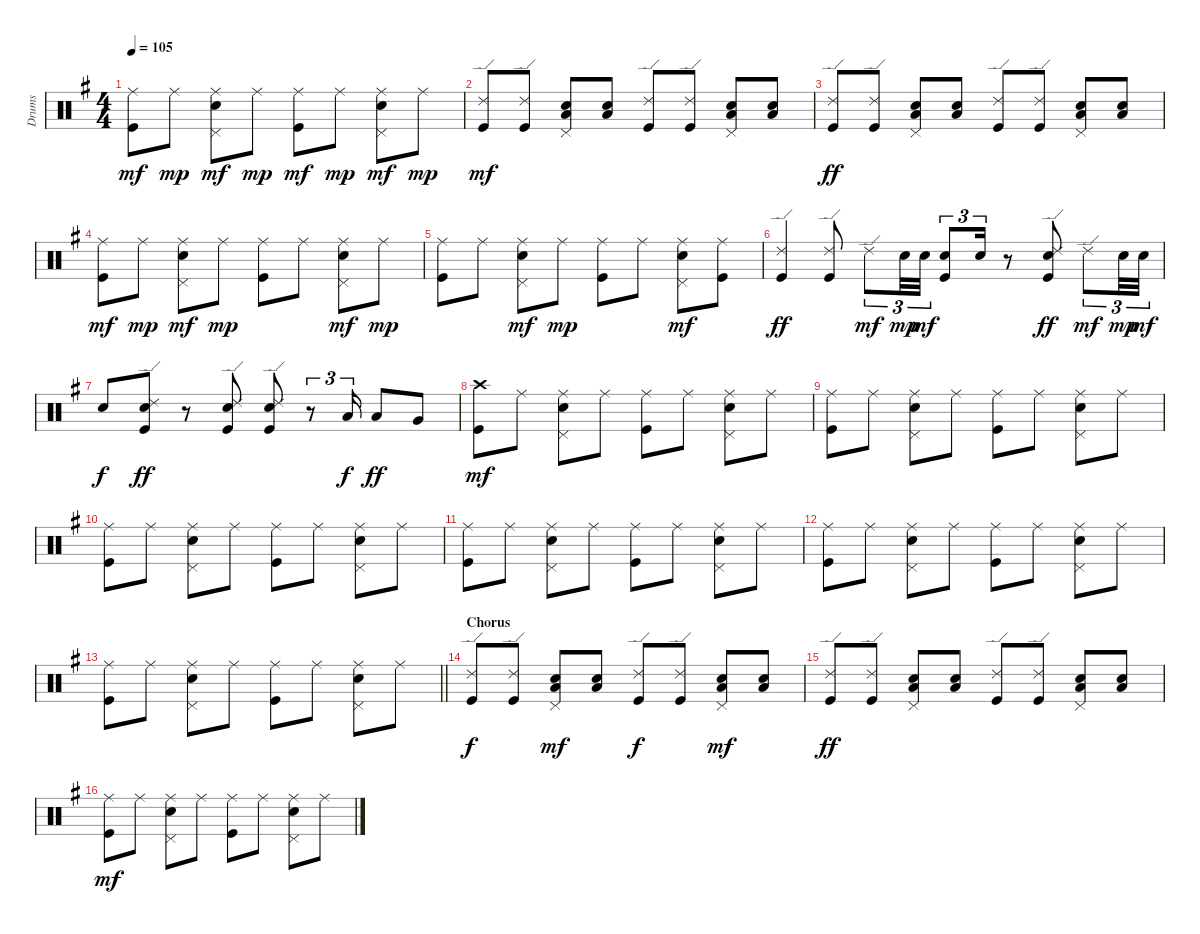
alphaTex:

\track ("Drums" "Drums") {instrument percussion}
\staff {score}
\articulation defaults
\ts (4 4)
\tempo 105
\clef neutral
\ks eminor
("Ride (middle)" "Kick (hit)").8{dy mf} "Ride (middle)".8{dy mp} ("Ride (middle)" "Pedal Hi-Hat (hit)" "Snare (hit) 2").8{dy mf} "Ride (middle)".8{dy mp} ("Ride (middle)" "Kick (hit)").8{dy mf} "Ride (middle)".8{dy mp} ("Ride (middle)" "Pedal Hi-Hat (hit)" "Snare (hit) 2").8{dy mf} "Ride (middle)".8{dy mp} |
("Ride (edge) 2" "Kick (hit)").8{dy mf} ("Ride (edge) 2" "Kick (hit)").8 ("Pedal Hi-Hat (hit)" "Snare (hit) 2" "Low Tom (hit)").8 ("Snare (hit) 2" "Low Tom (hit)").8 ("Ride (edge) 2" "Kick (hit)").8 ("Ride (edge) 2" "Kick (hit)").8 ("Pedal Hi-Hat (hit)" "Snare (hit) 2" "Low Tom (hit)").8 ("Snare (hit) 2" "Low Tom (hit)").8 |
("Ride (edge) 2" "Kick (hit)").8{dy ff} ("Ride (edge) 2" "Kick (hit)").8 ("Pedal Hi-Hat (hit)" "Snare (hit) 2" "Low Tom (hit)").8 ("Snare (hit) 2" "Low Tom (hit)").8 ("Ride (edge) 2" "Kick (hit)").8 ("Ride (edge) 2" "Kick (hit)").8 ("Pedal Hi-Hat (hit)" "Snare (hit) 2" "Low Tom (hit)").8 ("Snare (hit) 2" "Low Tom (hit)").8 |
("Ride (middle)" "Kick (hit)").8{dy mf} "Ride (middle)".8{dy mp} ("Ride (middle)" "Pedal Hi-Hat (hit)" "Snare (hit) 2").8{dy mf} "Ride (middle)".8{dy mp} ("Ride (middle)" "Kick (hit)").8 "Ride (middle)".8 ("Ride (middle)" "Pedal Hi-Hat (hit)" "Snare (hit) 2").8{dy mf} "Ride (middle)".8{dy mp} |
("Ride (middle)" "Kick (hit)").8 "Ride (middle)".8 ("Ride (middle)" "Pedal Hi-Hat (hit)" "Snare (hit) 2").8{dy mf} "Ride (middle)".8{dy mp} ("Ride (middle)" "Kick (hit)").8 "Ride (middle)".8 ("Ride (middle)" "Pedal Hi-Hat (hit)" "Snare (hit) 2").8{dy mf} ("Ride (middle)" "Kick (hit)").8 |
("Ride (edge) 2" "Kick (hit)").4{dy ff} ("Ride (edge) 2" "Kick (hit)").8 "Ride (edge) 2".8{tu (3 2) dy mf} "Snare (hit) 2".32{tu (3 2) dy mp} "Snare (hit) 2".32{tu (3 2) dy mf} ("Snare (hit) 2" "Kick (hit)").8{tu (3 2)} "Snare (hit) 2".16{tu (3 2)} r.8 ("Ride (edge) 2" "Snare (hit) 2" "Kick (hit)").8{dy ff} "Ride (edge) 2".8{tu (3 2) dy mf} "Snare (hit) 2".32{tu (3 2) dy mp} "Snare (hit) 2".32{tu (3 2) dy mf} |
"Snare (hit) 2".8{dy f} ("Ride (edge) 2" "Snare (hit) 2" "Kick (hit)").8{dy ff} r.8 ("Ride (edge) 2" "Snare (hit) 2" "Kick (hit)").8 ("Ride (edge) 2" "Snare (hit) 2" "Kick (hit)").8 r.8{tu (3 2)} "Low Tom (hit)".16{tu (3 2) dy f} "Low Tom (hit)".8{dy ff} "Very Low Tom (hit)".8 |
("Crash high (hit)" "Kick (hit)").8{dy mf} "Ride (middle)".8 ("Ride (middle)" "Pedal Hi-Hat (hit)" "Snare (hit) 2").8 "Ride (middle)".8 ("Ride (middle)" "Kick (hit)").8 "Ride (middle)".8 ("Ride (middle)" "Pedal Hi-Hat (hit)" "Snare (hit) 2").8 "Ride (middle)".8 |
("Ride (middle)" "Kick (hit)").8 "Ride (middle)".8 ("Ride (middle)" "Pedal Hi-Hat (hit)" "Snare (hit) 2").8 "Ride (middle)".8 ("Ride (middle)" "Kick (hit)").8 "Ride (middle)".8 ("Ride (middle)" "Pedal Hi-Hat (hit)" "Snare (hit) 2").8 "Ride (middle)".8 |
("Ride (middle)" "Kick (hit)").8 "Ride (middle)".8 ("Ride (middle)" "Pedal Hi-Hat (hit)" "Snare (hit) 2").8 "Ride (middle)".8 ("Ride (middle)" "Kick (hit)").8 "Ride (middle)".8 ("Ride (middle)" "Pedal Hi-Hat (hit)" "Snare (hit) 2").8 "Ride (middle)".8 |
("Ride (middle)" "Kick (hit)").8 "Ride (middle)".8 ("Ride (middle)" "Pedal Hi-Hat (hit)" "Snare (hit) 2").8 "Ride (middle)".8 ("Ride (middle)" "Kick (hit)").8 "Ride (middle)".8 ("Ride (middle)" "Pedal Hi-Hat (hit)" "Snare (hit) 2").8 "Ride (middle)".8 |
("Ride (middle)" "Kick (hit)").8 "Ride (middle)".8 ("Ride (middle)" "Pedal Hi-Hat (hit)" "Snare (hit) 2").8 "Ride (middle)".8 ("Ride (middle)" "Kick (hit)").8 "Ride (middle)".8 ("Ride (middle)" "Pedal Hi-Hat (hit)" "Snare (hit) 2").8 "Ride (middle)".8 |
\barLineRight lightlight
("Ride (middle)" "Kick (hit)").8 "Ride (middle)".8 ("Ride (middle)" "Pedal Hi-Hat (hit)" "Snare (hit) 2").8 "Ride (middle)".8 ("Ride (middle)" "Kick (hit)").8 "Ride (middle)".8 ("Ride (middle)" "Pedal Hi-Hat (hit)" "Snare (hit) 2").8 "Ride (middle)".8 |
\section ("" "Chorus")
("Ride (edge) 2" "Kick (hit)").8{dy f} ("Ride (edge) 2" "Kick (hit)").8 ("Pedal Hi-Hat (hit)" "Snare (hit) 2" "Low Tom (hit)").8{dy mf} ("Snare (hit) 2" "Low Tom (hit)").8 ("Ride (edge) 2" "Kick (hit)").8{dy f} ("Ride (edge) 2" "Kick (hit)").8 ("Pedal Hi-Hat (hit)" "Snare (hit) 2" "Low Tom (hit)").8{dy mf} ("Snare (hit) 2" "Low Tom (hit)").8 |
("Ride (edge) 2" "Kick (hit)").8{dy ff} ("Ride (edge) 2" "Kick (hit)").8 ("Pedal Hi-Hat (hit)" "Snare (hit) 2" "Low Tom (hit)").8 ("Snare (hit) 2" "Low Tom (hit)").8 ("Ride (edge) 2" "Kick (hit)").8 ("Ride (edge) 2" "Kick (hit)").8 ("Pedal Hi-Hat (hit)" "Snare (hit) 2" "Low Tom (hit)").8 ("Snare (hit) 2" "Low Tom (hit)").8 |
("Ride (middle)" "Kick (hit)").8{dy mf} "Ride (middle)".8 ("Ride (middle)" "Pedal Hi-Hat (hit)" "Snare (hit) 2").8 "Ride (middle)".8 ("Ride (middle)" "Kick (hit)").8 "Ride (middle)".8 ("Ride (middle)" "Pedal Hi-Hat (hit)" "Snare (hit) 2").8 "Ride (middle)".8
